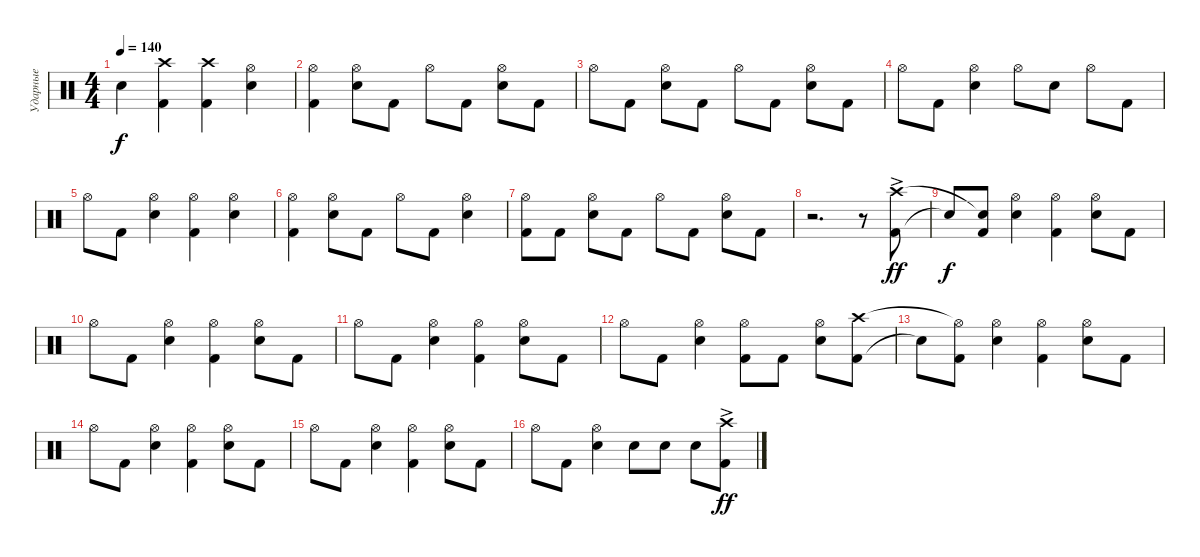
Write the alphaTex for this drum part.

\track ("Ударные" "Ударные") {instrument percussion}
\staff {score}
\articulation defaults
\ts (4 4)
\tempo 140
\clef neutral
\ks c "Snare (hit)"{t}.4{dy f}
("Kick (hit) 2" "Crash high (hit)").4 ("Kick (hit) 2" "Crash high (hit)").4 ("Snare (hit) 2" "Hi-Hat (open)").4 |
("Kick (hit) 2" "Hi-Hat (open)").4 ("Snare (hit) 2" "Hi-Hat (open)").8 "Kick (hit) 2".8 "Hi-Hat (open)".8 "Kick (hit) 2".8 ("Snare (hit) 2" "Hi-Hat (open)").8 "Kick (hit) 2".8 |
"Hi-Hat (open)".8 "Kick (hit) 2".8 ("Snare (hit) 2" "Hi-Hat (open)").8 "Kick (hit) 2".8 "Hi-Hat (open)".8 "Kick (hit) 2".8 ("Snare (hit) 2" "Hi-Hat (open)").8 "Kick (hit) 2".8 |
"Hi-Hat (open)".8 "Kick (hit) 2".8 ("Snare (hit) 2" "Hi-Hat (open)").4 "Hi-Hat (open)".8 "Snare (hit) 2".8 "Hi-Hat (open)".8 "Kick (hit) 2".8 |
"Hi-Hat (open)".8 "Kick (hit) 2".8 ("Snare (hit) 2" "Hi-Hat (open)").4 ("Kick (hit) 2" "Hi-Hat (open)").4 ("Snare (hit) 2" "Hi-Hat (open)").4 |
("Kick (hit) 2" "Hi-Hat (open)").4 ("Snare (hit) 2" "Hi-Hat (open)").8 "Kick (hit) 2".8 "Hi-Hat (open)".8 "Kick (hit) 2".8 ("Snare (hit) 2" "Hi-Hat (open)").4 |
("Kick (hit) 2" "Hi-Hat (open)").8 "Kick (hit) 2".8 ("Snare (hit) 2" "Hi-Hat (open)").8 "Kick (hit) 2".8 "Hi-Hat (open)".8 "Kick (hit) 2".8 ("Snare (hit) 2" "Hi-Hat (open)").8 "Kick (hit) 2".8 |
r.2{d} r.8 ("Kick (hit) 2"{ac} "Crash high (hit)"{ac}).8{dy ff} |
"Snare (hit)"{t}.8{dy f} ("Kick (hit) 2" "Snare (hit)"{t}).8 ("Snare (hit) 2" "Hi-Hat (open)").4 ("Kick (hit) 2" "Hi-Hat (open)").4 ("Snare (hit) 2" "Hi-Hat (open)").8 "Kick (hit) 2".8 |
"Hi-Hat (open)".8 "Kick (hit) 2".8 ("Snare (hit) 2" "Hi-Hat (open)").4 ("Kick (hit) 2" "Hi-Hat (open)").4 ("Snare (hit) 2" "Hi-Hat (open)").8 "Kick (hit) 2".8 |
"Hi-Hat (open)".8 "Kick (hit) 2".8 ("Snare (hit) 2" "Hi-Hat (open)").4 ("Kick (hit) 2" "Hi-Hat (open)").4 ("Snare (hit) 2" "Hi-Hat (open)").8 "Kick (hit) 2".8 |
"Hi-Hat (open)".8 "Kick (hit) 2".8 ("Snare (hit) 2" "Hi-Hat (open)").4 ("Kick (hit) 2" "Hi-Hat (open)").8 "Kick (hit) 2".8 ("Snare (hit) 2" "Hi-Hat (open)").8 ("Kick (hit) 2" "Crash high (hit)").8 |
"Snare (hit)"{t}.8 ("Kick (hit) 2" "Hi-Hat (open)"{t}).8 ("Snare (hit) 2" "Hi-Hat (open)").4 ("Kick (hit) 2" "Hi-Hat (open)").4 ("Snare (hit) 2" "Hi-Hat (open)").8 "Kick (hit) 2".8 |
"Hi-Hat (open)".8 "Kick (hit) 2".8 ("Snare (hit) 2" "Hi-Hat (open)").4 ("Kick (hit) 2" "Hi-Hat (open)").4 ("Snare (hit) 2" "Hi-Hat (open)").8 "Kick (hit) 2".8 |
"Hi-Hat (open)".8 "Kick (hit) 2".8 ("Snare (hit) 2" "Hi-Hat (open)").4 ("Kick (hit) 2" "Hi-Hat (open)").4 ("Snare (hit) 2" "Hi-Hat (open)").8 "Kick (hit) 2".8 |
"Hi-Hat (open)".8 "Kick (hit) 2".8 ("Snare (hit) 2" "Hi-Hat (open)").4 "Snare (hit) 2".8 "Snare (hit) 2".8 "Snare (hit) 2".8 ("Kick (hit) 2"{ac} "Crash high (hit)"{ac}).8{dy ff}
